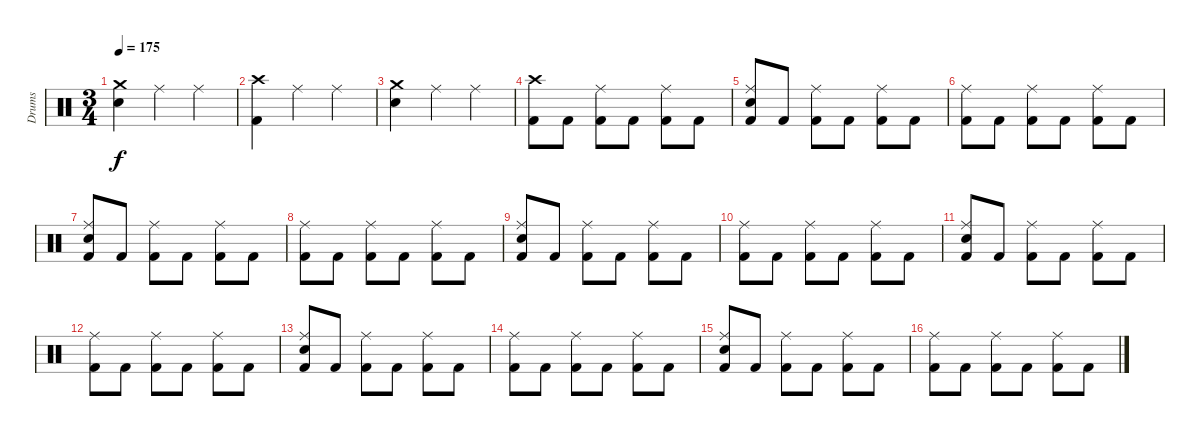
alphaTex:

\track ("Drums" "Drums") {instrument percussion}
\staff {score}
\articulation defaults
\ts (3 4)
\tempo 175
\clef neutral
\ks c
("Crash medium (hit)" "Electric Snare (hit)").4{dy f} "Ride (middle)".4 "Ride (middle)".4 |
("Crash high (hit)" "Kick (hit) 2").4 "Ride (middle)".4 "Ride (middle)".4 |
("Crash medium (hit)" "Electric Snare (hit)").4 "Ride (middle)".4 "Ride (middle)".4 |
("Crash high (hit)" "Kick (hit) 2").8 "Kick (hit) 2".8 ("Ride (middle)" "Kick (hit) 2").8 "Kick (hit) 2".8 ("Ride (middle)" "Kick (hit) 2").8 "Kick (hit) 2".8 |
("Ride (middle)" "Electric Snare (hit)" "Kick (hit) 2").8 "Kick (hit) 2".8 ("Ride (middle)" "Kick (hit) 2").8 "Kick (hit) 2".8 ("Ride (middle)" "Kick (hit) 2").8 "Kick (hit) 2".8 |
("Ride (middle)" "Kick (hit) 2").8 "Kick (hit) 2".8 ("Ride (middle)" "Kick (hit) 2").8 "Kick (hit) 2".8 ("Ride (middle)" "Kick (hit) 2").8 "Kick (hit) 2".8 |
("Ride (middle)" "Electric Snare (hit)" "Kick (hit) 2").8 "Kick (hit) 2".8 ("Ride (middle)" "Kick (hit) 2").8 "Kick (hit) 2".8 ("Ride (middle)" "Kick (hit) 2").8 "Kick (hit) 2".8 |
("Ride (middle)" "Kick (hit) 2").8 "Kick (hit) 2".8 ("Ride (middle)" "Kick (hit) 2").8 "Kick (hit) 2".8 ("Ride (middle)" "Kick (hit) 2").8 "Kick (hit) 2".8 |
("Ride (middle)" "Electric Snare (hit)" "Kick (hit) 2").8 "Kick (hit) 2".8 ("Ride (middle)" "Kick (hit) 2").8 "Kick (hit) 2".8 ("Ride (middle)" "Kick (hit) 2").8 "Kick (hit) 2".8 |
("Ride (middle)" "Kick (hit) 2").8 "Kick (hit) 2".8 ("Ride (middle)" "Kick (hit) 2").8 "Kick (hit) 2".8 ("Ride (middle)" "Kick (hit) 2").8 "Kick (hit) 2".8 |
("Ride (middle)" "Electric Snare (hit)" "Kick (hit) 2").8 "Kick (hit) 2".8 ("Ride (middle)" "Kick (hit) 2").8 "Kick (hit) 2".8 ("Ride (middle)" "Kick (hit) 2").8 "Kick (hit) 2".8 |
("Ride (middle)" "Kick (hit) 2").8 "Kick (hit) 2".8 ("Ride (middle)" "Kick (hit) 2").8 "Kick (hit) 2".8 ("Ride (middle)" "Kick (hit) 2").8 "Kick (hit) 2".8 |
("Ride (middle)" "Electric Snare (hit)" "Kick (hit) 2").8 "Kick (hit) 2".8 ("Ride (middle)" "Kick (hit) 2").8 "Kick (hit) 2".8 ("Ride (middle)" "Kick (hit) 2").8 "Kick (hit) 2".8 |
("Ride (middle)" "Kick (hit) 2").8 "Kick (hit) 2".8 ("Ride (middle)" "Kick (hit) 2").8 "Kick (hit) 2".8 ("Ride (middle)" "Kick (hit) 2").8 "Kick (hit) 2".8 |
("Ride (middle)" "Electric Snare (hit)" "Kick (hit) 2").8 "Kick (hit) 2".8 ("Ride (middle)" "Kick (hit) 2").8 "Kick (hit) 2".8 ("Ride (middle)" "Kick (hit) 2").8 "Kick (hit) 2".8 |
("Ride (middle)" "Kick (hit) 2").8 "Kick (hit) 2".8 ("Ride (middle)" "Kick (hit) 2").8 "Kick (hit) 2".8 ("Ride (middle)" "Kick (hit) 2").8 "Kick (hit) 2".8
